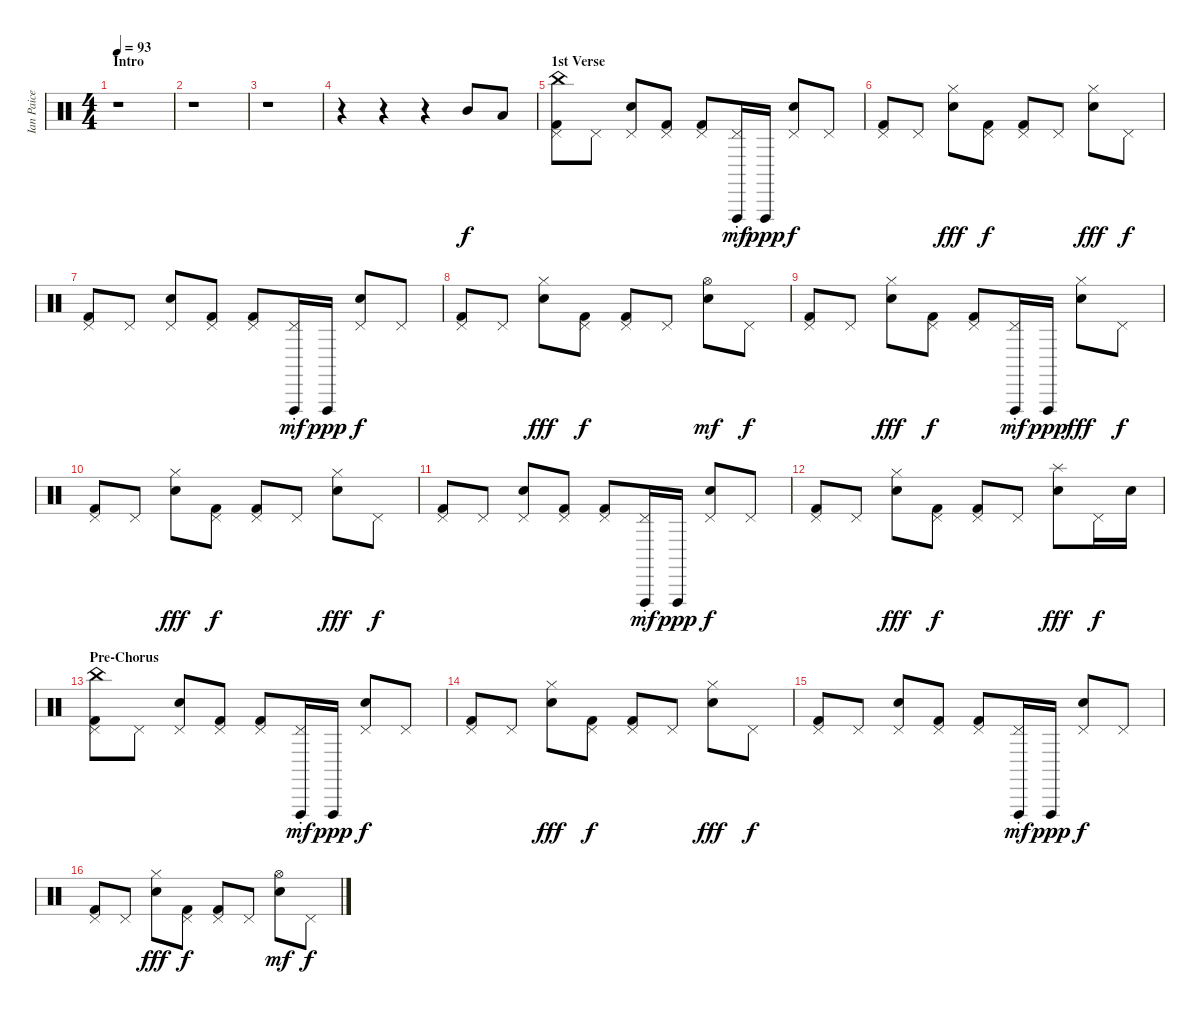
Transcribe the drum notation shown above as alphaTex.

\track ("Ian Paice (drums)" "Ian Paice ") {instrument percussion}
\staff {score}
\articulation defaults
\ts (4 4)
\section ("" "Intro")
\tempo 93
\clef neutral
\ks c
r.1{dy f} |
r.1 |
r.1 |
r.4 r.4 r.4 "Mid Tom (hit)".8 "Low Tom (hit)".8 |
\section ("" "1st Verse")
("China (hit)" "Pedal Hi-Hat (hit)" "Kick (hit) 2").8 "Pedal Hi-Hat (hit)".8 ("Pedal Hi-Hat (hit)" "Electric Snare (hit)").8 ("Pedal Hi-Hat (hit)" "Kick (hit) 2").8 ("Pedal Hi-Hat (hit)" "Kick (hit) 2").8 ("Pedal Hi-Hat (hit)" "Vibraslap (hit)"{st}).16{dy mf} "Vibraslap (hit)".16{dy ppp} ("Pedal Hi-Hat (hit)" "Electric Snare (hit)").8{dy f} "Pedal Hi-Hat (hit)".8 |
("Pedal Hi-Hat (hit)" "Kick (hit) 2").8 "Pedal Hi-Hat (hit)".8 ("Hi-Hat (closed)" "Electric Snare (hit)").8{dy fff} ("Pedal Hi-Hat (hit)" "Kick (hit) 2").8{dy f} ("Pedal Hi-Hat (hit)" "Kick (hit) 2").8 "Pedal Hi-Hat (hit)".8 ("Hi-Hat (closed)" "Electric Snare (hit)").8{dy fff} "Pedal Hi-Hat (hit)".8{dy f} |
("Pedal Hi-Hat (hit)" "Kick (hit) 2").8 "Pedal Hi-Hat (hit)".8 ("Pedal Hi-Hat (hit)" "Electric Snare (hit)").8 ("Pedal Hi-Hat (hit)" "Kick (hit) 2").8 ("Pedal Hi-Hat (hit)" "Kick (hit) 2").8 ("Pedal Hi-Hat (hit)" "Vibraslap (hit)"{st}).16{dy mf} "Vibraslap (hit)".16{dy ppp} ("Pedal Hi-Hat (hit)" "Electric Snare (hit)").8{dy f} "Pedal Hi-Hat (hit)".8 |
("Pedal Hi-Hat (hit)" "Kick (hit) 2").8 "Pedal Hi-Hat (hit)".8 ("Hi-Hat (closed)" "Electric Snare (hit)").8{dy fff} ("Pedal Hi-Hat (hit)" "Kick (hit) 2").8{dy f} ("Pedal Hi-Hat (hit)" "Kick (hit) 2").8 "Pedal Hi-Hat (hit)".8 ("Hi-Hat (open)" "Electric Snare (hit)").8{dy mf} "Pedal Hi-Hat (hit)".8{dy f} |
("Pedal Hi-Hat (hit)" "Kick (hit) 2").8 "Pedal Hi-Hat (hit)".8 ("Hi-Hat (closed)" "Electric Snare (hit)").8{dy fff} ("Pedal Hi-Hat (hit)" "Kick (hit) 2").8{dy f} ("Pedal Hi-Hat (hit)" "Kick (hit) 2").8 ("Pedal Hi-Hat (hit)" "Vibraslap (hit)"{st}).16{dy mf} "Vibraslap (hit)".16{dy ppp} ("Hi-Hat (closed)" "Electric Snare (hit)").8{dy fff} "Pedal Hi-Hat (hit)".8{dy f} |
("Pedal Hi-Hat (hit)" "Kick (hit) 2").8 "Pedal Hi-Hat (hit)".8 ("Hi-Hat (closed)" "Electric Snare (hit)").8{dy fff} ("Pedal Hi-Hat (hit)" "Kick (hit) 2").8{dy f} ("Pedal Hi-Hat (hit)" "Kick (hit) 2").8 "Pedal Hi-Hat (hit)".8 ("Hi-Hat (closed)" "Electric Snare (hit)").8{dy fff} "Pedal Hi-Hat (hit)".8{dy f} |
("Pedal Hi-Hat (hit)" "Kick (hit) 2").8 "Pedal Hi-Hat (hit)".8 ("Pedal Hi-Hat (hit)" "Electric Snare (hit)").8 ("Pedal Hi-Hat (hit)" "Kick (hit) 2").8 ("Pedal Hi-Hat (hit)" "Kick (hit) 2").8 ("Pedal Hi-Hat (hit)" "Vibraslap (hit)"{st}).16{dy mf} "Vibraslap (hit)".16{dy ppp} ("Pedal Hi-Hat (hit)" "Electric Snare (hit)").8{dy f} "Pedal Hi-Hat (hit)".8 |
("Pedal Hi-Hat (hit)" "Kick (hit) 2").8 "Pedal Hi-Hat (hit)".8 ("Hi-Hat (closed)" "Electric Snare (hit)").8{dy fff} ("Pedal Hi-Hat (hit)" "Kick (hit) 2").8{dy f} ("Pedal Hi-Hat (hit)" "Kick (hit) 2").8 "Pedal Hi-Hat (hit)".8 ("Splash (hit)" "Electric Snare (hit)").8{dy fff} "Pedal Hi-Hat (hit)".16{dy f} "Electric Snare (hit)".16 |
\section ("" "Pre-Chorus")
("China (hit)" "Pedal Hi-Hat (hit)" "Kick (hit) 2").8 "Pedal Hi-Hat (hit)".8 ("Pedal Hi-Hat (hit)" "Electric Snare (hit)").8 ("Pedal Hi-Hat (hit)" "Kick (hit) 2").8 ("Pedal Hi-Hat (hit)" "Kick (hit) 2").8 ("Pedal Hi-Hat (hit)" "Vibraslap (hit)"{st}).16{dy mf} "Vibraslap (hit)".16{dy ppp} ("Pedal Hi-Hat (hit)" "Electric Snare (hit)").8{dy f} "Pedal Hi-Hat (hit)".8 |
("Pedal Hi-Hat (hit)" "Kick (hit) 2").8 "Pedal Hi-Hat (hit)".8 ("Hi-Hat (closed)" "Electric Snare (hit)").8{dy fff} ("Pedal Hi-Hat (hit)" "Kick (hit) 2").8{dy f} ("Pedal Hi-Hat (hit)" "Kick (hit) 2").8 "Pedal Hi-Hat (hit)".8 ("Hi-Hat (closed)" "Electric Snare (hit)").8{dy fff} "Pedal Hi-Hat (hit)".8{dy f} |
("Pedal Hi-Hat (hit)" "Kick (hit) 2").8 "Pedal Hi-Hat (hit)".8 ("Pedal Hi-Hat (hit)" "Electric Snare (hit)").8 ("Pedal Hi-Hat (hit)" "Kick (hit) 2").8 ("Pedal Hi-Hat (hit)" "Kick (hit) 2").8 ("Pedal Hi-Hat (hit)" "Vibraslap (hit)"{st}).16{dy mf} "Vibraslap (hit)".16{dy ppp} ("Pedal Hi-Hat (hit)" "Electric Snare (hit)").8{dy f} "Pedal Hi-Hat (hit)".8 |
("Pedal Hi-Hat (hit)" "Kick (hit) 2").8 "Pedal Hi-Hat (hit)".8 ("Hi-Hat (closed)" "Electric Snare (hit)").8{dy fff} ("Pedal Hi-Hat (hit)" "Kick (hit) 2").8{dy f} ("Pedal Hi-Hat (hit)" "Kick (hit) 2").8 "Pedal Hi-Hat (hit)".8 ("Hi-Hat (open)" "Electric Snare (hit)").8{dy mf} "Pedal Hi-Hat (hit)".8{dy f}
